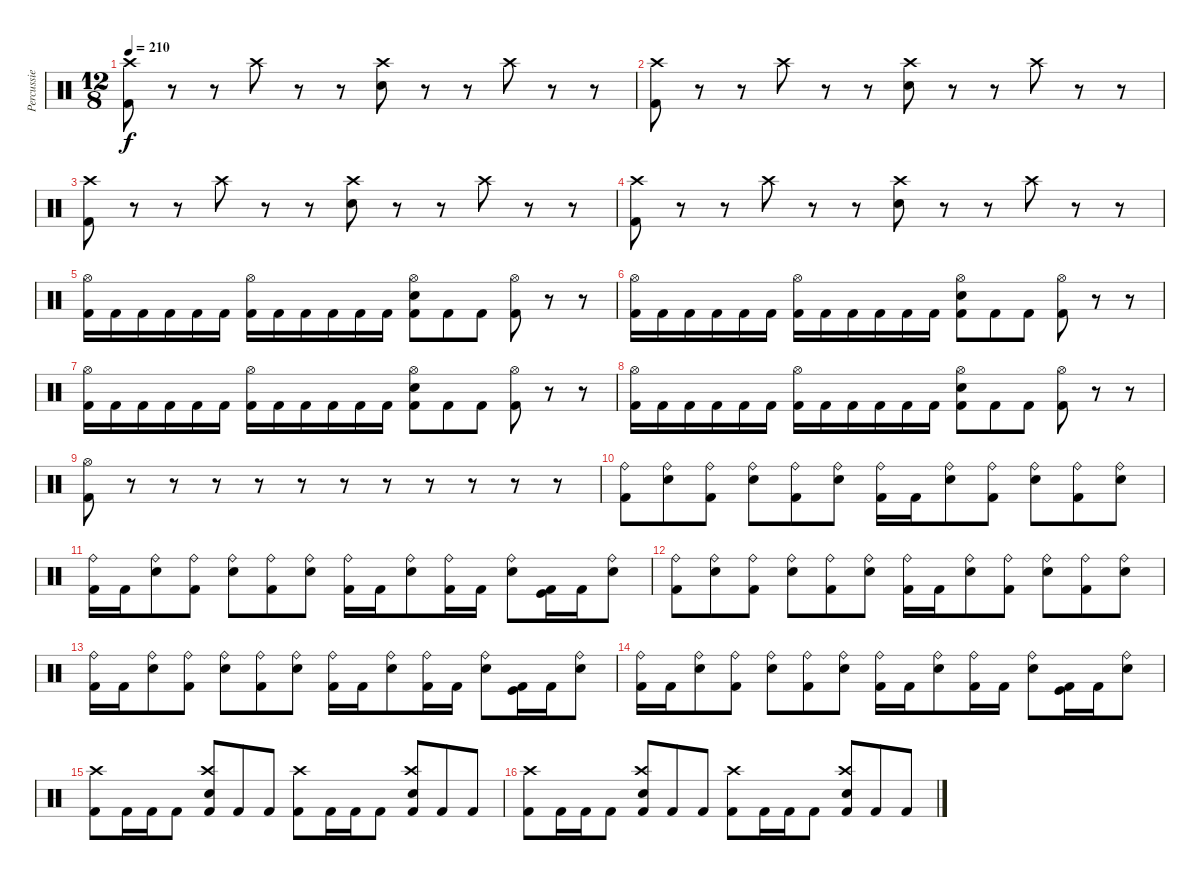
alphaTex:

\track ("Percussie" "Percussie") {instrument percussion}
\staff {score}
\articulation defaults
\ts (12 8)
\tempo 210
\clef neutral
\ks c
("Kick (hit) 2" "Crash high (hit)").8{dy f} r.8 r.8 "Crash high (hit)".8 r.8 r.8 ("Snare (hit) 2" "Crash high (hit)").8 r.8 r.8 "Crash high (hit)".8 r.8 r.8 |
("Kick (hit) 2" "Crash high (hit)").8 r.8 r.8 "Crash high (hit)".8 r.8 r.8 ("Snare (hit) 2" "Crash high (hit)").8 r.8 r.8 "Crash high (hit)".8 r.8 r.8 |
("Kick (hit) 2" "Crash high (hit)").8 r.8 r.8 "Crash high (hit)".8 r.8 r.8 ("Snare (hit) 2" "Crash high (hit)").8 r.8 r.8 "Crash high (hit)".8 r.8 r.8 |
("Kick (hit) 2" "Crash high (hit)").8 r.8 r.8 "Crash high (hit)".8 r.8 r.8 ("Snare (hit) 2" "Crash high (hit)").8 r.8 r.8 "Crash high (hit)".8 r.8 r.8 |
("Hi-Hat (open)" "Kick (hit) 2").16 "Kick (hit) 2".16 "Kick (hit) 2".16 "Kick (hit) 2".16 "Kick (hit) 2".16 "Kick (hit) 2".16 ("Hi-Hat (open)" "Kick (hit) 2").16 "Kick (hit) 2".16 "Kick (hit) 2".16 "Kick (hit) 2".16 "Kick (hit) 2".16 "Kick (hit) 2".16 ("Hi-Hat (open)" "Snare (hit) 2" "Kick (hit) 2").8 "Kick (hit) 2".8 "Kick (hit) 2".8 ("Hi-Hat (open)" "Kick (hit) 2").8 r.8 r.8 |
("Hi-Hat (open)" "Kick (hit) 2").16 "Kick (hit) 2".16 "Kick (hit) 2".16 "Kick (hit) 2".16 "Kick (hit) 2".16 "Kick (hit) 2".16 ("Hi-Hat (open)" "Kick (hit) 2").16 "Kick (hit) 2".16 "Kick (hit) 2".16 "Kick (hit) 2".16 "Kick (hit) 2".16 "Kick (hit) 2".16 ("Hi-Hat (open)" "Snare (hit) 2" "Kick (hit) 2").8 "Kick (hit) 2".8 "Kick (hit) 2".8 ("Hi-Hat (open)" "Kick (hit) 2").8 r.8 r.8 |
("Hi-Hat (open)" "Kick (hit) 2").16 "Kick (hit) 2".16 "Kick (hit) 2".16 "Kick (hit) 2".16 "Kick (hit) 2".16 "Kick (hit) 2".16 ("Hi-Hat (open)" "Kick (hit) 2").16 "Kick (hit) 2".16 "Kick (hit) 2".16 "Kick (hit) 2".16 "Kick (hit) 2".16 "Kick (hit) 2".16 ("Hi-Hat (open)" "Snare (hit) 2" "Kick (hit) 2").8 "Kick (hit) 2".8 "Kick (hit) 2".8 ("Hi-Hat (open)" "Kick (hit) 2").8 r.8 r.8 |
("Hi-Hat (open)" "Kick (hit) 2").16 "Kick (hit) 2".16 "Kick (hit) 2".16 "Kick (hit) 2".16 "Kick (hit) 2".16 "Kick (hit) 2".16 ("Hi-Hat (open)" "Kick (hit) 2").16 "Kick (hit) 2".16 "Kick (hit) 2".16 "Kick (hit) 2".16 "Kick (hit) 2".16 "Kick (hit) 2".16 ("Hi-Hat (open)" "Snare (hit) 2" "Kick (hit) 2").8 "Kick (hit) 2".8 "Kick (hit) 2".8 ("Hi-Hat (open)" "Kick (hit) 2").8 r.8 r.8 |
("Hi-Hat (open)" "Kick (hit) 2").8 r.8 r.8 r.8 r.8 r.8 r.8 r.8 r.8 r.8 r.8 r.8 |
("Kick (hit) 2" "Ride (bell)").8 ("Snare (hit) 2" "Ride (bell)").8 ("Kick (hit) 2" "Ride (bell)").8 ("Snare (hit) 2" "Ride (bell)").8 ("Kick (hit) 2" "Ride (bell)").8 ("Snare (hit) 2" "Ride (bell)").8 ("Kick (hit) 2" "Ride (bell)").16 "Kick (hit) 2".16 ("Snare (hit) 2" "Ride (bell)").8 ("Kick (hit) 2" "Ride (bell)").8 ("Snare (hit) 2" "Ride (bell)").8 ("Kick (hit) 2" "Ride (bell)").8 ("Snare (hit) 2" "Ride (bell)").8 |
("Kick (hit) 2" "Ride (bell)").16 "Kick (hit) 2".16 ("Snare (hit) 2" "Ride (bell)").8 ("Kick (hit) 2" "Ride (bell)").8 ("Snare (hit) 2" "Ride (bell)").8 ("Kick (hit) 2" "Ride (bell)").8 ("Snare (hit) 2" "Ride (bell)").8 ("Kick (hit) 2" "Ride (bell)").16 "Kick (hit) 2".16 ("Snare (hit) 2" "Ride (bell)").8 ("Kick (hit) 2" "Ride (bell)").16 "Kick (hit) 2".16 ("Snare (hit) 2" "Ride (bell)").8 ("Kick (hit) 2" "Kick (hit)").16 "Kick (hit) 2".16 ("Snare (hit) 2" "Ride (bell)").8 |
("Kick (hit) 2" "Ride (bell)").8 ("Snare (hit) 2" "Ride (bell)").8 ("Kick (hit) 2" "Ride (bell)").8 ("Snare (hit) 2" "Ride (bell)").8 ("Kick (hit) 2" "Ride (bell)").8 ("Snare (hit) 2" "Ride (bell)").8 ("Kick (hit) 2" "Ride (bell)").16 "Kick (hit) 2".16 ("Snare (hit) 2" "Ride (bell)").8 ("Kick (hit) 2" "Ride (bell)").8 ("Snare (hit) 2" "Ride (bell)").8 ("Kick (hit) 2" "Ride (bell)").8 ("Snare (hit) 2" "Ride (bell)").8 |
("Kick (hit) 2" "Ride (bell)").16 "Kick (hit) 2".16 ("Snare (hit) 2" "Ride (bell)").8 ("Kick (hit) 2" "Ride (bell)").8 ("Snare (hit) 2" "Ride (bell)").8 ("Kick (hit) 2" "Ride (bell)").8 ("Snare (hit) 2" "Ride (bell)").8 ("Kick (hit) 2" "Ride (bell)").16 "Kick (hit) 2".16 ("Snare (hit) 2" "Ride (bell)").8 ("Kick (hit) 2" "Ride (bell)").16 "Kick (hit) 2".16 ("Snare (hit) 2" "Ride (bell)").8 ("Kick (hit) 2" "Kick (hit)").16 "Kick (hit) 2".16 ("Snare (hit) 2" "Ride (bell)").8 |
("Kick (hit) 2" "Ride (bell)").16 "Kick (hit) 2".16 ("Snare (hit) 2" "Ride (bell)").8 ("Kick (hit) 2" "Ride (bell)").8 ("Snare (hit) 2" "Ride (bell)").8 ("Kick (hit) 2" "Ride (bell)").8 ("Snare (hit) 2" "Ride (bell)").8 ("Kick (hit) 2" "Ride (bell)").16 "Kick (hit) 2".16 ("Snare (hit) 2" "Ride (bell)").8 ("Kick (hit) 2" "Ride (bell)").16 "Kick (hit) 2".16 ("Snare (hit) 2" "Ride (bell)").8 ("Kick (hit) 2" "Kick (hit)").16 "Kick (hit) 2".16 ("Snare (hit) 2" "Ride (bell)").8 |
("Kick (hit) 2" "Crash high (hit)").8 "Kick (hit) 2".16 "Kick (hit) 2".16 "Kick (hit) 2".8 ("Kick (hit) 2" "Snare (hit) 2" "Crash high (hit)").8 "Kick (hit) 2".8 "Kick (hit) 2".8 ("Kick (hit) 2" "Crash high (hit)").8 "Kick (hit) 2".16 "Kick (hit) 2".16 "Kick (hit) 2".8 ("Kick (hit) 2" "Snare (hit) 2" "Crash high (hit)").8 "Kick (hit) 2".8 "Kick (hit) 2".8 |
("Kick (hit) 2" "Crash high (hit)").8 "Kick (hit) 2".16 "Kick (hit) 2".16 "Kick (hit) 2".8 ("Kick (hit) 2" "Snare (hit) 2" "Crash high (hit)").8 "Kick (hit) 2".8 "Kick (hit) 2".8 ("Kick (hit) 2" "Crash high (hit)").8 "Kick (hit) 2".16 "Kick (hit) 2".16 "Kick (hit) 2".8 ("Kick (hit) 2" "Snare (hit) 2" "Crash high (hit)").8 "Kick (hit) 2".8 "Kick (hit) 2".8
